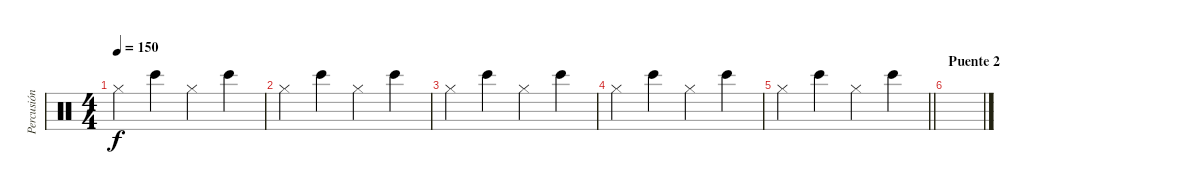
\track ("Percusión" "Percusión") {instrument percussion}
\staff {score}
\articulation defaults
\ts (4 4)
\tempo 150
\clef neutral
\ks c "Hi-Hat (closed)".4{dy f} "Bongo High (hit)".4 "Hi-Hat (closed)".4 "Bongo High (hit)".4
|
"Hi-Hat (closed)".4 "Bongo High (hit)".4 "Hi-Hat (closed)".4 "Bongo High (hit)".4 |
"Hi-Hat (closed)".4 "Bongo High (hit)".4 "Hi-Hat (closed)".4 "Bongo High (hit)".4 |
"Hi-Hat (closed)".4 "Bongo High (hit)".4 "Hi-Hat (closed)".4 "Bongo High (hit)".4 |
\barLineRight lightlight "Hi-Hat (closed)".4 "Bongo High (hit)".4 "Hi-Hat (closed)".4 "Bongo High (hit)".4
|
\section ("" "Puente 2")
